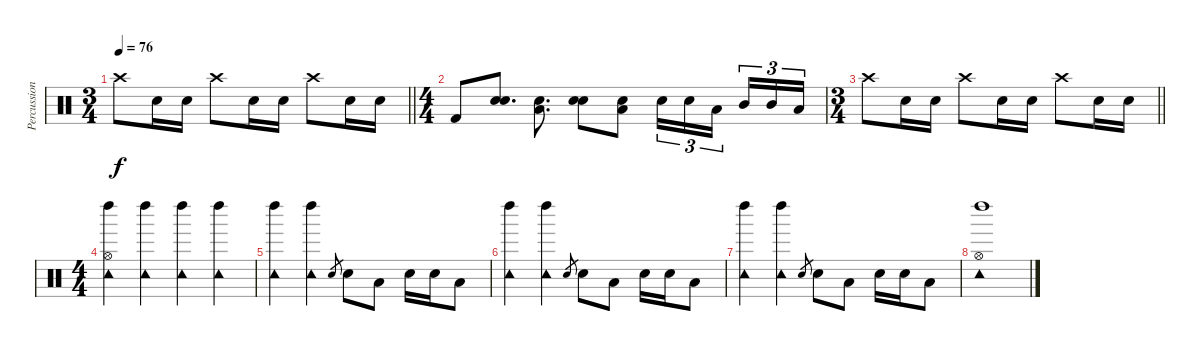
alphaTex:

\track ("Percussioni" "Percussion") {instrument percussion}
\staff {score}
\articulation defaults
\ts (3 4)
\tempo 76
\clef neutral
\barLineRight lightlight
\ks c "Crash high (hit)".8{dy f} "Electric Snare (hit)".16 "Electric Snare (hit)".16 "Crash high (hit)".8 "Electric Snare (hit)".16 "Electric Snare (hit)".16 "Crash high (hit)".8 "Electric Snare (hit)".16 "Electric Snare (hit)".16
|
\ts (4 4)
"Kick (hit) 2".8 ("Snare (hit) 2" "Electric Snare (hit)").8{d} ("Low Tom (hit)" "Electric Snare (hit)").8{d} ("Snare (hit) 2" "Electric Snare (hit)").8 ("Low Tom (hit)" "Electric Snare (hit)").8 "Electric Snare (hit)".16{tu (3 2)} "Electric Snare (hit)".16{tu (3 2)} "Low Tom (hit)".16{tu (3 2) beam splitsecondary} "Mid Tom (hit)".16{tu (3 2)} "Mid Tom (hit)".16{tu (3 2)} "Low Floor Tom (hit)".16{tu (3 2)} |
\ts (3 4)
\barLineRight lightlight "Crash high (hit)".8 "Electric Snare (hit)".16 "Electric Snare (hit)".16 "Crash high (hit)".8 "Electric Snare (hit)".16 "Electric Snare (hit)".16 "Crash high (hit)".8 "Electric Snare (hit)".16 "Electric Snare (hit)".16
|
\ts (4 4)
("Left Maraca (hit)" "Hi-Hat (open)" "Tambourine (hit)").4 ("Left Maraca (hit)" "Tambourine (hit)").4 ("Tambourine (hit)" "Left Maraca (hit)").4 ("Tambourine (hit)" "Left Maraca (hit)").4 |
("Tambourine (hit)" "Left Maraca (hit)").4 ("Tambourine (hit)" "Left Maraca (hit)").4 "Electric Snare (hit)".8{gr} "Electric Snare (hit)".8 "Low Tom (hit)".8 "Electric Snare (hit)".16 "Electric Snare (hit)".16 "Low Tom (hit)".8 |
("Tambourine (hit)" "Left Maraca (hit)").4 ("Tambourine (hit)" "Left Maraca (hit)").4 "Electric Snare (hit)".8{gr} "Electric Snare (hit)".8 "Low Tom (hit)".8 "Electric Snare (hit)".16 "Electric Snare (hit)".16 "Low Tom (hit)".8 |
("Tambourine (hit)" "Left Maraca (hit)").4 ("Tambourine (hit)" "Left Maraca (hit)").4 "Electric Snare (hit)".8{gr} "Electric Snare (hit)".8 "Low Tom (hit)".8 "Electric Snare (hit)".16 "Electric Snare (hit)".16 "Low Tom (hit)".8 |
("Hi-Hat (open)" "Tambourine (hit)" "Left Maraca (hit)").1
